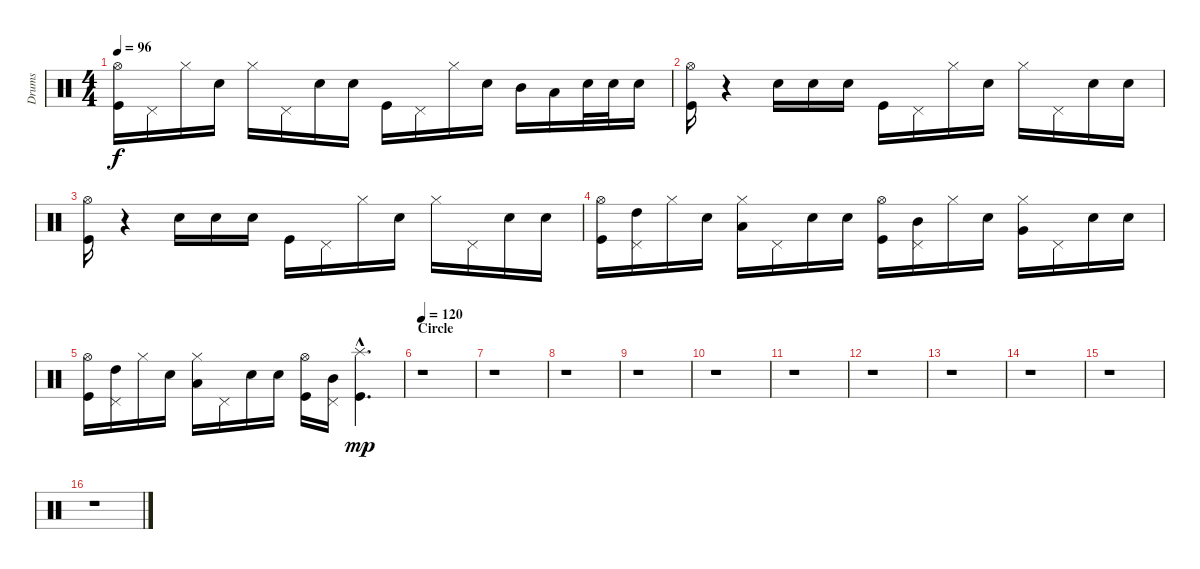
\track ("Drums" "Drums") {instrument percussion}
\staff {score}
\articulation defaults
\ts (4 4)
\tempo 96
\clef neutral
\ks c
("Hi-Hat (open)" "Kick (hit)").16{dy f} "Pedal Hi-Hat (hit)".16 "Hi-Hat (closed)".16 "Snare (hit) 2".16 "Hi-Hat (closed)".16 "Pedal Hi-Hat (hit)".16 "Snare (hit) 2".16 "Snare (hit) 2".16 "Kick (hit)".16 "Pedal Hi-Hat (hit)".16 "Hi-Hat (closed)".16 "Snare (hit) 2".16 "Mid Tom (hit)".16 "Low Tom (hit)".16 "Snare (hit) 2".32 "Snare (hit) 2".32 "Snare (hit) 2".16 |
("Hi-Hat (open)" "Kick (hit)").16 r.4 "Snare (hit) 2".16 "Snare (hit) 2".16 "Snare (hit) 2".16 "Kick (hit)".16 "Pedal Hi-Hat (hit)".16 "Hi-Hat (closed)".16 "Snare (hit) 2".16 "Hi-Hat (closed)".16 "Pedal Hi-Hat (hit)".16 "Snare (hit) 2".16 "Snare (hit) 2".16 |
("Hi-Hat (open)" "Kick (hit)").16 r.4 "Snare (hit) 2".16 "Snare (hit) 2".16 "Snare (hit) 2".16 "Kick (hit)".16 "Pedal Hi-Hat (hit)".16 "Hi-Hat (closed)".16 "Snare (hit) 2".16 "Hi-Hat (closed)".16 "Pedal Hi-Hat (hit)".16 "Snare (hit) 2".16 "Snare (hit) 2".16 |
("Hi-Hat (open)" "Kick (hit)").16 ("Pedal Hi-Hat (hit)" "High Tom (hit)").16 "Hi-Hat (closed)".16 "Snare (hit) 2".16 ("Hi-Hat (closed)" "Low Tom (hit)").16 "Pedal Hi-Hat (hit)".16 "Snare (hit) 2".16 "Snare (hit) 2".16 ("Hi-Hat (open)" "Kick (hit)").16 ("Pedal Hi-Hat (hit)" "Mid Tom (hit)").16 "Hi-Hat (closed)".16 "Snare (hit) 2".16 ("Hi-Hat (closed)" "Very Low Tom (hit)").16 "Pedal Hi-Hat (hit)".16 "Snare (hit) 2".16 "Snare (hit) 2".16 |
("Hi-Hat (open)" "Kick (hit)").16 ("Pedal Hi-Hat (hit)" "High Tom (hit)").16 "Hi-Hat (closed)".16 "Snare (hit) 2".16 ("Hi-Hat (closed)" "Low Tom (hit)").16 "Pedal Hi-Hat (hit)".16 "Snare (hit) 2".16 "Snare (hit) 2".16 ("Hi-Hat (open)" "Kick (hit)").16 ("Pedal Hi-Hat (hit)" "Mid Tom (hit)").16 ("Kick (hit)"{hac} "Splash (hit)"{hac}).4{d dy mp} |
\section ("" "Circle")
\tempo 120
r.1 |
r.1 |
r.1 |
r.1 |
r.1 |
r.1 |
r.1 |
r.1 |
r.1 |
r.1 |
r.1
